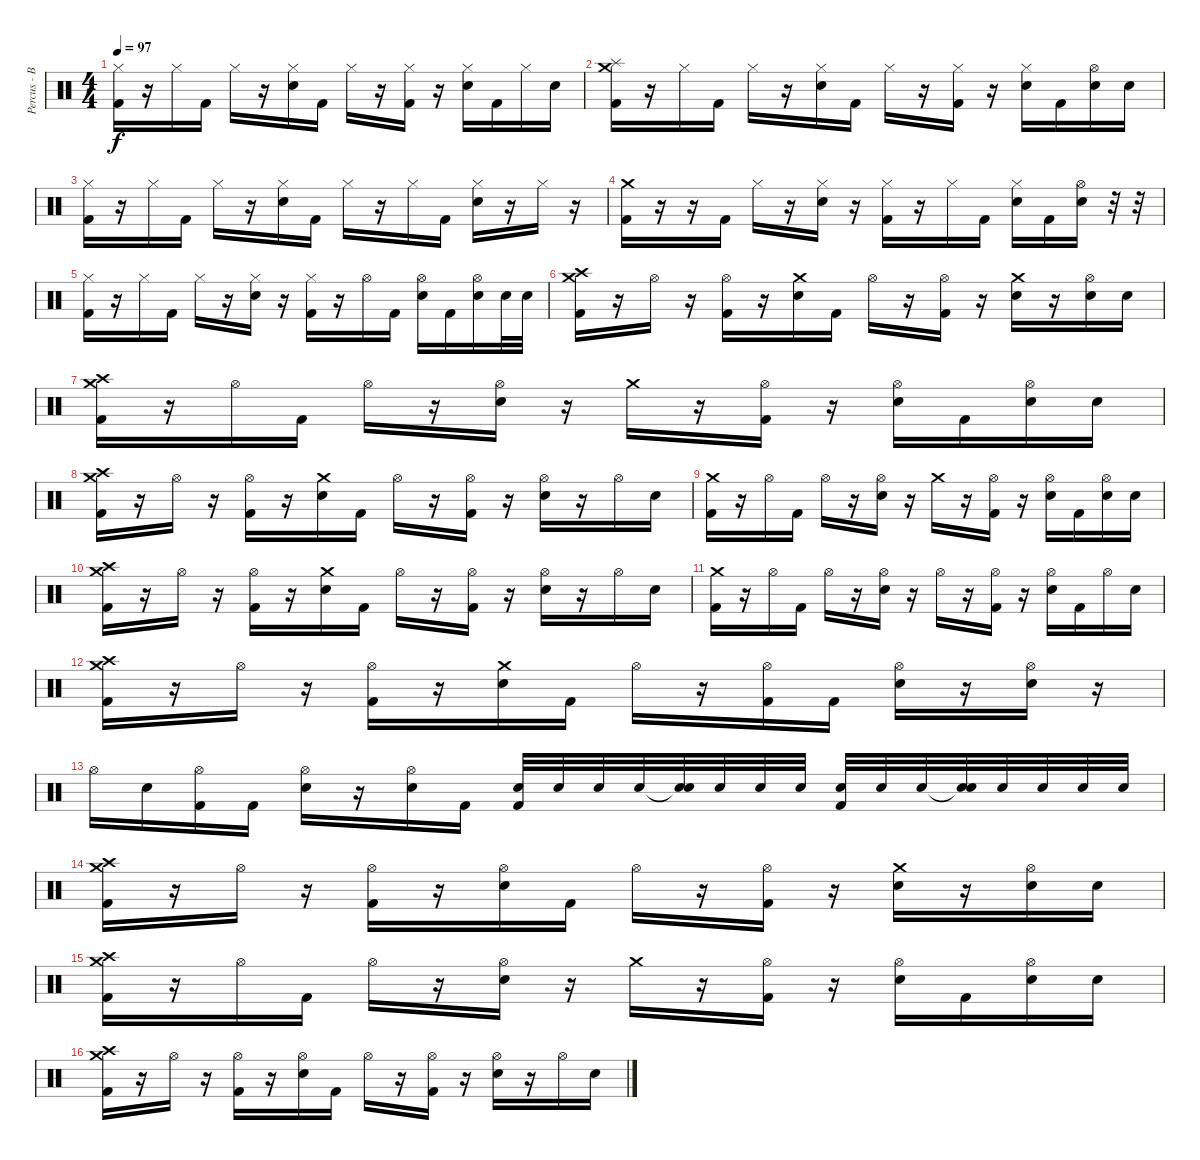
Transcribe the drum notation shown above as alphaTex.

\track ("Percus - Ben" "Percus - B") {instrument percussion}
\staff {score}
\articulation defaults
\ts (4 4)
\tempo 97
\clef neutral
\ks c
("Hi-Hat (closed)" "Kick (hit) 2").16{dy f} r.16 "Hi-Hat (closed)".16 "Kick (hit) 2".16 "Hi-Hat (closed)".16 r.16 ("Hi-Hat (closed)" "Electric Snare (hit)").16 "Kick (hit) 2".16 "Hi-Hat (closed)".16 r.16 ("Hi-Hat (closed)" "Kick (hit) 2").16 r.16 ("Hi-Hat (closed)" "Electric Snare (hit)").16 "Kick (hit) 2".16 "Hi-Hat (closed)".16 "Electric Snare (hit)".16 |
("Crash medium (hit)" "Splash (hit)" "Kick (hit) 2").16 r.16 "Hi-Hat (closed)".16 "Kick (hit) 2".16 "Hi-Hat (closed)".16 r.16 ("Hi-Hat (closed)" "Electric Snare (hit)").16 "Kick (hit) 2".16 "Hi-Hat (closed)".16 r.16 ("Hi-Hat (closed)" "Kick (hit) 2").16 r.16 ("Hi-Hat (closed)" "Electric Snare (hit)").16 "Kick (hit) 2".16 ("Hi-Hat (open)" "Electric Snare (hit)").16 "Electric Snare (hit)".16 |
("Hi-Hat (closed)" "Kick (hit) 2").16 r.16 "Hi-Hat (closed)".16 "Kick (hit) 2".16 "Hi-Hat (closed)".16 r.16 ("Hi-Hat (closed)" "Electric Snare (hit)").16 "Kick (hit) 2".16 "Hi-Hat (closed)".16 r.16 "Hi-Hat (closed)".16 "Kick (hit) 2".16 ("Hi-Hat (closed)" "Electric Snare (hit)").16 r.16 "Hi-Hat (closed)".16 r.16 |
("Crash medium (hit)" "Kick (hit) 2").16 r.16 r.16 "Kick (hit) 2".16 "Hi-Hat (closed)".16 r.16 ("Hi-Hat (closed)" "Electric Snare (hit)").16 r.16 ("Hi-Hat (closed)" "Kick (hit) 2").16 r.16 "Hi-Hat (closed)".16 "Kick (hit) 2".16 ("Hi-Hat (closed)" "Electric Snare (hit)").16 "Kick (hit) 2".16 ("Hi-Hat (open)" "Electric Snare (hit)").16 r.32 r.32 |
("Hi-Hat (closed)" "Kick (hit) 2").16 r.16 "Hi-Hat (closed)".16 "Kick (hit) 2".16 "Hi-Hat (closed)".16 r.16 ("Hi-Hat (closed)" "Electric Snare (hit)").16 r.16 ("Hi-Hat (closed)" "Kick (hit) 2").16 r.16 "Hi-Hat (open)".16 "Kick (hit) 2".16 ("Hi-Hat (open)" "Electric Snare (hit)").16 "Kick (hit) 2".16 ("Hi-Hat (open)" "Electric Snare (hit)").16 "Electric Snare (hit)".32 "Electric Snare (hit)".32 |
("Crash high (hit)" "Crash medium (hit)" "Kick (hit) 2").16 r.16 "Hi-Hat (open)".16 r.16 ("Hi-Hat (open)" "Kick (hit) 2").16 r.16 ("Crash medium (hit)" "Electric Snare (hit)").16 "Kick (hit) 2".16 "Hi-Hat (open)".16 r.16 ("Hi-Hat (open)" "Kick (hit) 2").16 r.16 ("Crash medium (hit)" "Electric Snare (hit)").16 r.16 ("Hi-Hat (open)" "Electric Snare (hit)").16 "Electric Snare (hit)".16 |
("Crash high (hit)" "Crash medium (hit)" "Kick (hit) 2").16 r.16 "Hi-Hat (open)".16 "Kick (hit) 2".16 "Hi-Hat (open)".16 r.16 ("Hi-Hat (open)" "Electric Snare (hit)").16 r.16 "Crash medium (hit)".16 r.16 ("Hi-Hat (open)" "Kick (hit) 2").16 r.16 ("Hi-Hat (open)" "Electric Snare (hit)").16 "Kick (hit) 2".16 ("Hi-Hat (open)" "Electric Snare (hit)").16 "Electric Snare (hit)".16 |
("Crash high (hit)" "Crash medium (hit)" "Kick (hit) 2").16 r.16 "Hi-Hat (open)".16 r.16 ("Hi-Hat (open)" "Kick (hit) 2").16 r.16 ("Crash medium (hit)" "Electric Snare (hit)").16 "Kick (hit) 2".16 "Hi-Hat (open)".16 r.16 ("Hi-Hat (open)" "Kick (hit) 2").16 r.16 ("Hi-Hat (open)" "Electric Snare (hit)").16 r.16 "Hi-Hat (open)".16 "Electric Snare (hit)".16 |
("Crash medium (hit)" "Kick (hit) 2").16 r.16 "Hi-Hat (open)".16 "Kick (hit) 2".16 "Hi-Hat (open)".16 r.16 ("Hi-Hat (open)" "Electric Snare (hit)").16 r.16 "Crash medium (hit)".16 r.16 ("Hi-Hat (open)" "Kick (hit) 2").16 r.16 ("Hi-Hat (open)" "Electric Snare (hit)").16 "Kick (hit) 2".16 ("Hi-Hat (open)" "Electric Snare (hit)").16 "Electric Snare (hit)".16 |
("Crash high (hit)" "Crash medium (hit)" "Kick (hit) 2").16 r.16 "Hi-Hat (open)".16 r.16 ("Hi-Hat (open)" "Kick (hit) 2").16 r.16 ("Crash medium (hit)" "Electric Snare (hit)").16 "Kick (hit) 2".16 "Hi-Hat (open)".16 r.16 ("Hi-Hat (open)" "Kick (hit) 2").16 r.16 ("Hi-Hat (open)" "Electric Snare (hit)").16 r.16 "Hi-Hat (open)".16 "Electric Snare (hit)".16 |
("Crash medium (hit)" "Kick (hit) 2").16 r.16 "Hi-Hat (open)".16 "Kick (hit) 2".16 "Hi-Hat (open)".16 r.16 ("Hi-Hat (open)" "Electric Snare (hit)").16 r.16 "Hi-Hat (open)".16 r.16 ("Hi-Hat (open)" "Kick (hit) 2").16 r.16 ("Hi-Hat (open)" "Electric Snare (hit)").16 "Kick (hit) 2".16 "Hi-Hat (open)".16 "Electric Snare (hit)".16 |
("Crash high (hit)" "Crash medium (hit)" "Kick (hit) 2").16 r.16 "Hi-Hat (open)".16 r.16 ("Hi-Hat (open)" "Kick (hit) 2").16 r.16 ("Crash medium (hit)" "Electric Snare (hit)").16 "Kick (hit) 2".16 "Hi-Hat (open)".16 r.16 ("Hi-Hat (open)" "Kick (hit) 2").16 "Kick (hit) 2".16 ("Hi-Hat (open)" "Electric Snare (hit)").16 r.16 ("Hi-Hat (open)" "Electric Snare (hit)").16 r.16 |
"Hi-Hat (open)".16 "Electric Snare (hit)".16 ("Hi-Hat (open)" "Kick (hit) 2").16 "Kick (hit) 2".16 ("Hi-Hat (open)" "Electric Snare (hit)").16 r.16 ("Hi-Hat (open)" "Electric Snare (hit)").16 "Kick (hit) 2".16 ("Kick (hit) 2" "Electric Snare (hit)").32{volume 11} "Electric Snare (hit)".32 "Electric Snare (hit)".32 "Electric Snare (hit)".32 ("Snare (hit)"{t} "Electric Snare (hit)").32 "Electric Snare (hit)".32{volume 15} "Electric Snare (hit)".32 "Electric Snare (hit)".32 ("Kick (hit) 2" "Electric Snare (hit)").32 "Electric Snare (hit)".32 "Electric Snare (hit)".32 ("Snare (hit)"{t} "Electric Snare (hit)").32 "Electric Snare (hit)".32 "Electric Snare (hit)".32 "Electric Snare (hit)".32 "Electric Snare (hit)".32 |
("Crash high (hit)" "Crash medium (hit)" "Kick (hit) 2").16 r.16 "Hi-Hat (open)".16 r.16 ("Hi-Hat (open)" "Kick (hit) 2").16 r.16 ("Hi-Hat (open)" "Electric Snare (hit)").16 "Kick (hit) 2".16 "Hi-Hat (open)".16 r.16 ("Hi-Hat (open)" "Kick (hit) 2").16 r.16 ("Crash medium (hit)" "Electric Snare (hit)").16 r.16 ("Hi-Hat (open)" "Electric Snare (hit)").16 "Electric Snare (hit)".16 |
("Crash high (hit)" "Crash medium (hit)" "Kick (hit) 2").16 r.16 "Hi-Hat (open)".16 "Kick (hit) 2".16 "Hi-Hat (open)".16 r.16 ("Hi-Hat (open)" "Electric Snare (hit)").16 r.16 "Crash medium (hit)".16 r.16 ("Hi-Hat (open)" "Kick (hit) 2").16 r.16 ("Hi-Hat (open)" "Electric Snare (hit)").16 "Kick (hit) 2".16 ("Hi-Hat (open)" "Electric Snare (hit)").16 "Electric Snare (hit)".16 |
("Crash high (hit)" "Crash medium (hit)" "Kick (hit) 2").16 r.16 "Hi-Hat (open)".16 r.16 ("Hi-Hat (open)" "Kick (hit) 2").16 r.16 ("Hi-Hat (open)" "Electric Snare (hit)").16 "Kick (hit) 2".16 "Hi-Hat (open)".16 r.16 ("Hi-Hat (open)" "Kick (hit) 2").16 r.16 ("Hi-Hat (open)" "Electric Snare (hit)").16 r.16 "Hi-Hat (open)".16 "Electric Snare (hit)".16
